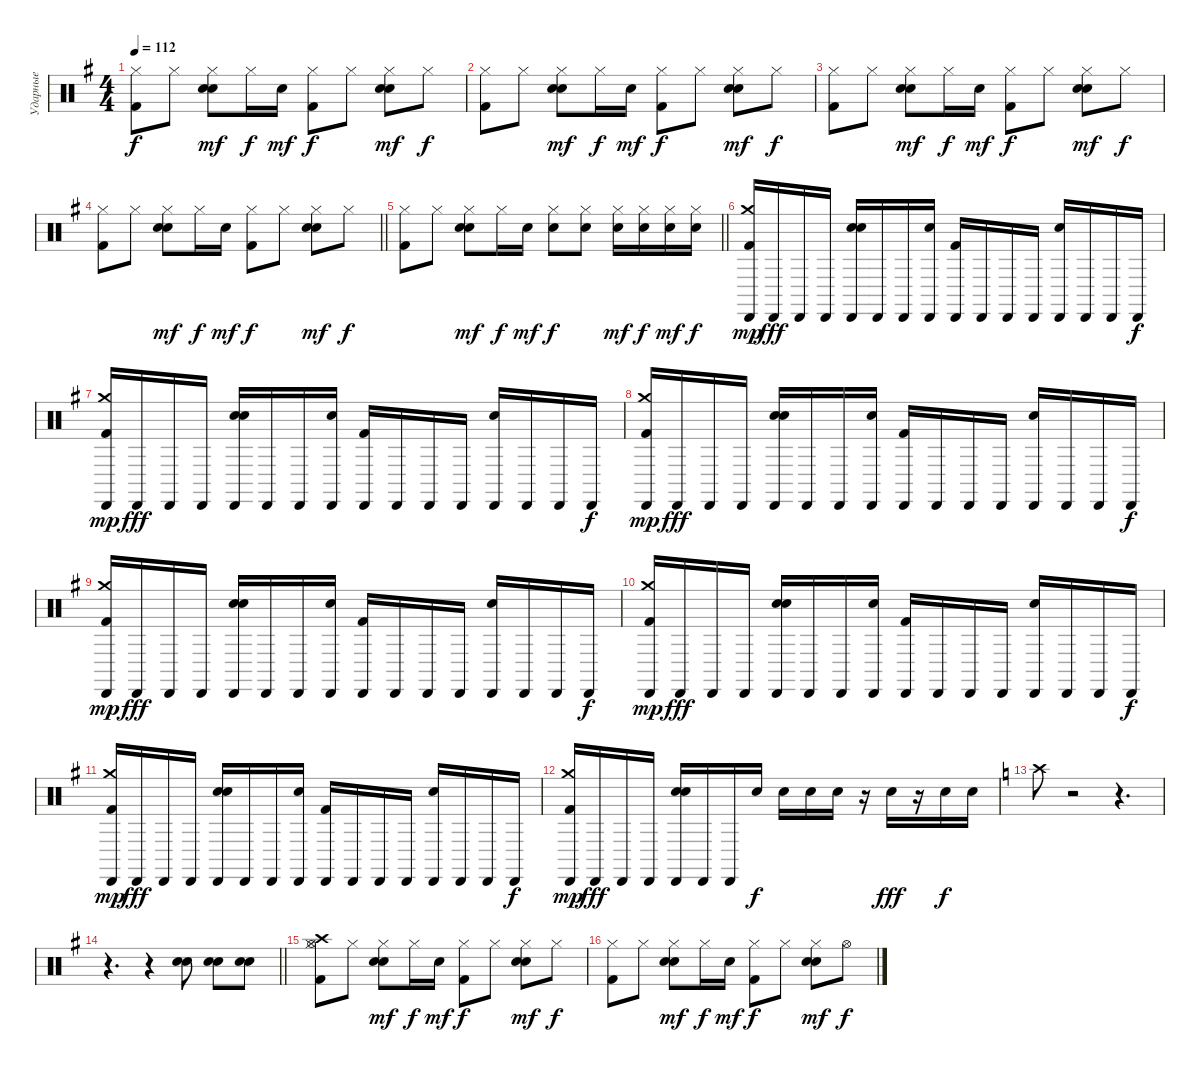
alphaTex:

\track ("Ударные" "Ударные") {instrument percussion}
\staff {score}
\articulation defaults
\ts (4 4)
\tempo 112
\clef neutral
\ks eminor
("Hi-Hat (closed)" "Kick (hit) 2").8{dy f} "Hi-Hat (closed)".8 ("Hi-Hat (closed)" "Electric Snare (hit)" "Snare (hit) 2").8{dy mf} "Hi-Hat (closed)".16{dy f} "Snare (hit) 2".16{dy mf} ("Hi-Hat (closed)" "Kick (hit) 2").8{dy f} "Hi-Hat (closed)".8 ("Hi-Hat (closed)" "Electric Snare (hit)" "Snare (hit) 2").8{dy mf} "Hi-Hat (closed)".8{dy f} |
("Hi-Hat (closed)" "Kick (hit) 2").8 "Hi-Hat (closed)".8 ("Hi-Hat (closed)" "Electric Snare (hit)" "Snare (hit) 2").8{dy mf} "Hi-Hat (closed)".16{dy f} "Snare (hit) 2".16{dy mf} ("Hi-Hat (closed)" "Kick (hit) 2").8{dy f} "Hi-Hat (closed)".8 ("Hi-Hat (closed)" "Electric Snare (hit)" "Snare (hit) 2").8{dy mf} "Hi-Hat (closed)".8{dy f} |
("Hi-Hat (closed)" "Kick (hit) 2").8 "Hi-Hat (closed)".8 ("Hi-Hat (closed)" "Electric Snare (hit)" "Snare (hit) 2").8{dy mf} "Hi-Hat (closed)".16{dy f} "Snare (hit) 2".16{dy mf} ("Hi-Hat (closed)" "Kick (hit) 2").8{dy f} "Hi-Hat (closed)".8 ("Hi-Hat (closed)" "Electric Snare (hit)" "Snare (hit) 2").8{dy mf} "Hi-Hat (closed)".8{dy f} |
\barLineRight lightlight
("Hi-Hat (closed)" "Kick (hit) 2").8 "Hi-Hat (closed)".8 ("Hi-Hat (closed)" "Electric Snare (hit)" "Snare (hit) 2").8{dy mf} "Hi-Hat (closed)".16{dy f} "Snare (hit) 2".16{dy mf} ("Hi-Hat (closed)" "Kick (hit) 2").8{dy f} "Hi-Hat (closed)".8 ("Hi-Hat (closed)" "Electric Snare (hit)" "Snare (hit) 2").8{dy mf} "Hi-Hat (closed)".8{dy f} |
\barLineRight lightlight
("Hi-Hat (closed)" "Kick (hit) 2").8 "Hi-Hat (closed)".8 ("Hi-Hat (closed)" "Electric Snare (hit)" "Snare (hit) 2").8{dy mf} "Hi-Hat (closed)".16{dy f} "Snare (hit) 2".16{dy mf} ("Hi-Hat (closed)" "Snare (hit) 2").8{dy f} ("Hi-Hat (closed)" "Snare (hit) 2").8 ("Hi-Hat (closed)" "Snare (hit) 2").16{dy mf} ("Hi-Hat (closed)" "Snare (hit) 2").16{dy f} ("Hi-Hat (closed)" "Snare (hit) 2").16{dy mf} ("Hi-Hat (closed)" "Snare (hit) 2").16{dy f} |
("Cabasa (hit)" "Crash medium (hit)" "Kick (hit) 2").16{dy mp} "Cabasa (hit)".16{dy fff} "Cabasa (hit)".16 "Cabasa (hit)".16 ("Cabasa (hit)" "Electric Snare (hit)" "Snare (hit) 2").16 "Cabasa (hit)".16 "Cabasa (hit)".16 ("Cabasa (hit)" "Snare (hit) 2").16 ("Cabasa (hit)" "Kick (hit) 2").16 "Cabasa (hit)".16 "Cabasa (hit)".16 "Cabasa (hit)".16 ("Cabasa (hit)" "Snare (hit) 2").16 "Cabasa (hit)".16 "Cabasa (hit)".16 "Cabasa (hit)".16{dy f} |
("Cabasa (hit)" "Crash medium (hit)" "Kick (hit) 2").16{dy mp} "Cabasa (hit)".16{dy fff} "Cabasa (hit)".16 "Cabasa (hit)".16 ("Cabasa (hit)" "Electric Snare (hit)" "Snare (hit) 2").16 "Cabasa (hit)".16 "Cabasa (hit)".16 ("Cabasa (hit)" "Snare (hit) 2").16 ("Cabasa (hit)" "Kick (hit) 2").16 "Cabasa (hit)".16 "Cabasa (hit)".16 "Cabasa (hit)".16 ("Cabasa (hit)" "Snare (hit) 2").16 "Cabasa (hit)".16 "Cabasa (hit)".16 "Cabasa (hit)".16{dy f} |
("Cabasa (hit)" "Crash medium (hit)" "Kick (hit) 2").16{dy mp} "Cabasa (hit)".16{dy fff} "Cabasa (hit)".16 "Cabasa (hit)".16 ("Cabasa (hit)" "Electric Snare (hit)" "Snare (hit) 2").16 "Cabasa (hit)".16 "Cabasa (hit)".16 ("Cabasa (hit)" "Snare (hit) 2").16 ("Cabasa (hit)" "Kick (hit) 2").16 "Cabasa (hit)".16 "Cabasa (hit)".16 "Cabasa (hit)".16 ("Cabasa (hit)" "Snare (hit) 2").16 "Cabasa (hit)".16 "Cabasa (hit)".16 "Cabasa (hit)".16{dy f} |
("Cabasa (hit)" "Crash medium (hit)" "Kick (hit) 2").16{dy mp} "Cabasa (hit)".16{dy fff} "Cabasa (hit)".16 "Cabasa (hit)".16 ("Cabasa (hit)" "Electric Snare (hit)" "Snare (hit) 2").16 "Cabasa (hit)".16 "Cabasa (hit)".16 ("Cabasa (hit)" "Snare (hit) 2").16 ("Cabasa (hit)" "Kick (hit) 2").16 "Cabasa (hit)".16 "Cabasa (hit)".16 "Cabasa (hit)".16 ("Cabasa (hit)" "Snare (hit) 2").16 "Cabasa (hit)".16 "Cabasa (hit)".16 "Cabasa (hit)".16{dy f} |
("Cabasa (hit)" "Crash medium (hit)" "Kick (hit) 2").16{dy mp} "Cabasa (hit)".16{dy fff} "Cabasa (hit)".16 "Cabasa (hit)".16 ("Cabasa (hit)" "Electric Snare (hit)" "Snare (hit) 2").16 "Cabasa (hit)".16 "Cabasa (hit)".16 ("Cabasa (hit)" "Snare (hit) 2").16 ("Cabasa (hit)" "Kick (hit) 2").16 "Cabasa (hit)".16 "Cabasa (hit)".16 "Cabasa (hit)".16 ("Cabasa (hit)" "Snare (hit) 2").16 "Cabasa (hit)".16 "Cabasa (hit)".16 "Cabasa (hit)".16{dy f} |
("Cabasa (hit)" "Crash medium (hit)" "Kick (hit) 2").16{dy mp} "Cabasa (hit)".16{dy fff} "Cabasa (hit)".16 "Cabasa (hit)".16 ("Cabasa (hit)" "Electric Snare (hit)" "Snare (hit) 2").16 "Cabasa (hit)".16 "Cabasa (hit)".16 ("Cabasa (hit)" "Snare (hit) 2").16 ("Cabasa (hit)" "Kick (hit) 2").16 "Cabasa (hit)".16 "Cabasa (hit)".16 "Cabasa (hit)".16 ("Cabasa (hit)" "Snare (hit) 2").16 "Cabasa (hit)".16 "Cabasa (hit)".16 "Cabasa (hit)".16{dy f} |
("Cabasa (hit)" "Crash medium (hit)" "Kick (hit) 2").16{dy mp} "Cabasa (hit)".16{dy fff} "Cabasa (hit)".16 "Cabasa (hit)".16 ("Cabasa (hit)" "Electric Snare (hit)" "Snare (hit) 2").16 "Cabasa (hit)".16 "Cabasa (hit)".16 "Snare (hit) 2".16{dy f} "Snare (hit) 2".16 "Snare (hit) 2".16 "Snare (hit) 2".16 r.16 "Snare (hit) 2".16{dy fff} r.16 "Snare (hit) 2".16{dy f} "Snare (hit) 2".16 |
\ks c "Crash high (hit)".8
r.2 r.4{d} |
\barLineRight lightlight
\ks eminor
r.4{d} r.4 ("Snare (hit) 2" "Electric Snare (hit)").8 ("Snare (hit) 2" "Electric Snare (hit)").8 ("Snare (hit) 2" "Electric Snare (hit)").8 |
("Hi-Hat (closed)" "Crash high (hit)" "Kick (hit) 2" "Hi-Hat (open)").8 "Hi-Hat (closed)".8 ("Hi-Hat (closed)" "Electric Snare (hit)" "Snare (hit) 2").8{dy mf} "Hi-Hat (closed)".16{dy f} "Snare (hit) 2".16{dy mf} ("Hi-Hat (closed)" "Kick (hit) 2").8{dy f} "Hi-Hat (closed)".8 ("Hi-Hat (closed)" "Electric Snare (hit)" "Snare (hit) 2").8{dy mf} "Hi-Hat (closed)".8{dy f} |
("Hi-Hat (closed)" "Kick (hit) 2").8 "Hi-Hat (closed)".8 ("Hi-Hat (closed)" "Electric Snare (hit)" "Snare (hit) 2").8{dy mf} "Hi-Hat (closed)".16{dy f} "Snare (hit) 2".16{dy mf} ("Hi-Hat (closed)" "Kick (hit) 2").8{dy f} "Hi-Hat (closed)".8 ("Hi-Hat (closed)" "Electric Snare (hit)" "Snare (hit) 2").8{dy mf} "Hi-Hat (open)".8{dy f}
